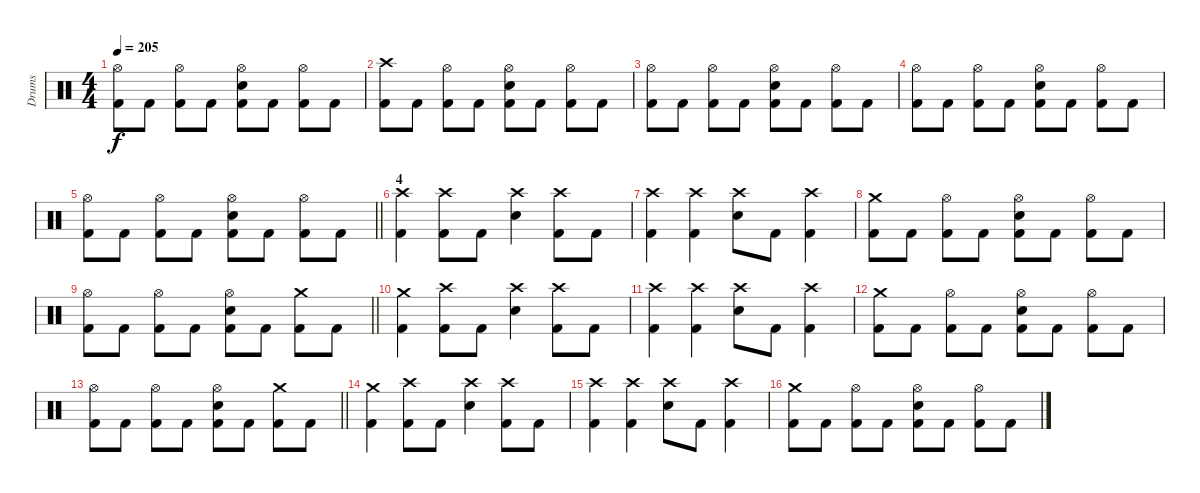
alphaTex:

\track ("Drums" "Drums") {instrument percussion}
\staff {score}
\articulation defaults
\ts (4 4)
\tempo 205
\clef neutral
\ks c
("Hi-Hat (open)" "Kick (hit) 2").8{dy f} "Kick (hit) 2".8 ("Hi-Hat (open)" "Kick (hit) 2").8 "Kick (hit) 2".8 ("Hi-Hat (open)" "Electric Snare (hit)" "Kick (hit) 2").8 "Kick (hit) 2".8 ("Hi-Hat (open)" "Kick (hit) 2").8 "Kick (hit) 2".8 |
("Crash high (hit)" "Kick (hit) 2").8 "Kick (hit) 2".8 ("Hi-Hat (open)" "Kick (hit) 2").8 "Kick (hit) 2".8 ("Hi-Hat (open)" "Electric Snare (hit)" "Kick (hit) 2").8 "Kick (hit) 2".8 ("Hi-Hat (open)" "Kick (hit) 2").8 "Kick (hit) 2".8 |
("Hi-Hat (open)" "Kick (hit) 2").8 "Kick (hit) 2".8 ("Hi-Hat (open)" "Kick (hit) 2").8 "Kick (hit) 2".8 ("Hi-Hat (open)" "Electric Snare (hit)" "Kick (hit) 2").8 "Kick (hit) 2".8 ("Hi-Hat (open)" "Kick (hit) 2").8 "Kick (hit) 2".8 |
("Hi-Hat (open)" "Kick (hit) 2").8 "Kick (hit) 2".8 ("Hi-Hat (open)" "Kick (hit) 2").8 "Kick (hit) 2".8 ("Hi-Hat (open)" "Electric Snare (hit)" "Kick (hit) 2").8 "Kick (hit) 2".8 ("Hi-Hat (open)" "Kick (hit) 2").8 "Kick (hit) 2".8 |
\barLineRight lightlight
("Hi-Hat (open)" "Kick (hit) 2").8 "Kick (hit) 2".8 ("Hi-Hat (open)" "Kick (hit) 2").8 "Kick (hit) 2".8 ("Hi-Hat (open)" "Electric Snare (hit)" "Kick (hit) 2").8 "Kick (hit) 2".8 ("Hi-Hat (open)" "Kick (hit) 2").8 "Kick (hit) 2".8 |
\section ("" "4")
("Crash high (hit)" "Kick (hit) 2").4 ("Crash high (hit)" "Kick (hit) 2").8 "Kick (hit) 2".8 ("Crash high (hit)" "Electric Snare (hit)").4 ("Crash high (hit)" "Kick (hit) 2").8 "Kick (hit) 2".8 |
("Crash high (hit)" "Kick (hit) 2").4 ("Crash high (hit)" "Kick (hit) 2").4 ("Crash high (hit)" "Electric Snare (hit)").8 "Kick (hit) 2".8 ("Crash high (hit)" "Kick (hit) 2").4 |
("Crash medium (hit)" "Kick (hit) 2").8 "Kick (hit) 2".8 ("Hi-Hat (open)" "Kick (hit) 2").8 "Kick (hit) 2".8 ("Hi-Hat (open)" "Electric Snare (hit)" "Kick (hit) 2").8 "Kick (hit) 2".8 ("Hi-Hat (open)" "Kick (hit) 2").8 "Kick (hit) 2".8 |
\barLineRight lightlight
("Hi-Hat (open)" "Kick (hit) 2").8 "Kick (hit) 2".8 ("Hi-Hat (open)" "Kick (hit) 2").8 "Kick (hit) 2".8 ("Hi-Hat (open)" "Electric Snare (hit)" "Kick (hit) 2").8 "Kick (hit) 2".8 ("Crash medium (hit)" "Kick (hit) 2").8 "Kick (hit) 2".8 |
("Crash medium (hit)" "Kick (hit) 2").4 ("Crash high (hit)" "Kick (hit) 2").8 "Kick (hit) 2".8 ("Crash high (hit)" "Electric Snare (hit)").4 ("Crash high (hit)" "Kick (hit) 2").8 "Kick (hit) 2".8 |
("Crash high (hit)" "Kick (hit) 2").4 ("Crash high (hit)" "Kick (hit) 2").4 ("Crash high (hit)" "Electric Snare (hit)").8 "Kick (hit) 2".8 ("Crash high (hit)" "Kick (hit) 2").4 |
("Crash medium (hit)" "Kick (hit) 2").8 "Kick (hit) 2".8 ("Hi-Hat (open)" "Kick (hit) 2").8 "Kick (hit) 2".8 ("Hi-Hat (open)" "Electric Snare (hit)" "Kick (hit) 2").8 "Kick (hit) 2".8 ("Hi-Hat (open)" "Kick (hit) 2").8 "Kick (hit) 2".8 |
\barLineRight lightlight
("Hi-Hat (open)" "Kick (hit) 2").8 "Kick (hit) 2".8 ("Hi-Hat (open)" "Kick (hit) 2").8 "Kick (hit) 2".8 ("Hi-Hat (open)" "Electric Snare (hit)" "Kick (hit) 2").8 "Kick (hit) 2".8 ("Crash medium (hit)" "Kick (hit) 2").8 "Kick (hit) 2".8 |
("Crash medium (hit)" "Kick (hit) 2").4 ("Crash high (hit)" "Kick (hit) 2").8 "Kick (hit) 2".8 ("Crash high (hit)" "Electric Snare (hit)").4 ("Crash high (hit)" "Kick (hit) 2").8 "Kick (hit) 2".8 |
("Crash high (hit)" "Kick (hit) 2").4 ("Crash high (hit)" "Kick (hit) 2").4 ("Crash high (hit)" "Electric Snare (hit)").8 "Kick (hit) 2".8 ("Crash high (hit)" "Kick (hit) 2").4 |
("Crash medium (hit)" "Kick (hit) 2").8 "Kick (hit) 2".8 ("Hi-Hat (open)" "Kick (hit) 2").8 "Kick (hit) 2".8 ("Hi-Hat (open)" "Electric Snare (hit)" "Kick (hit) 2").8 "Kick (hit) 2".8 ("Hi-Hat (open)" "Kick (hit) 2").8 "Kick (hit) 2".8
